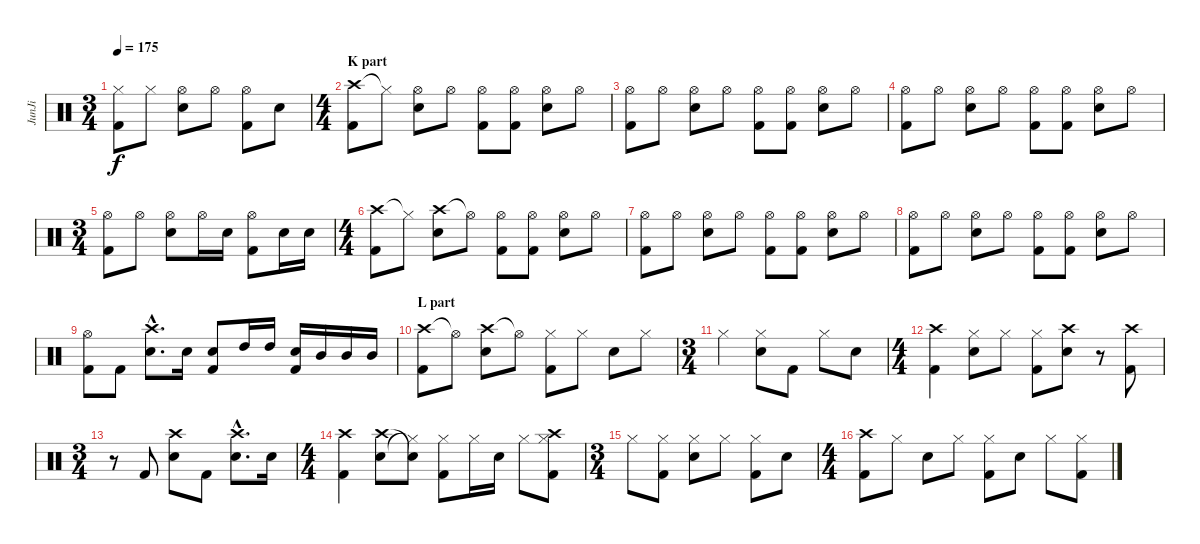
\track ("JunJi" "JunJi") {instrument percussion}
\staff {score}
\articulation defaults
\ts (3 4)
\tempo 175
\clef neutral
\ks c
("Hi-Hat (closed)" "Kick (hit) 2").8{dy f} "Hi-Hat (closed)".8 ("Hi-Hat (open)" "Snare (hit) 2").8 "Hi-Hat (open)".8 ("Hi-Hat (open)" "Kick (hit) 2").8 "Snare (hit) 2".8 |
\ts (4 4)
\section ("" "K part")
("Crash high (hit)" "Kick (hit) 2").8 "Hi-Hat (closed)"{t}.8 ("Hi-Hat (open)" "Snare (hit) 2").8 "Hi-Hat (open)".8 ("Hi-Hat (open)" "Kick (hit) 2").8 ("Hi-Hat (open)" "Kick (hit) 2").8 ("Hi-Hat (open)" "Snare (hit) 2").8 "Hi-Hat (open)".8 |
("Hi-Hat (open)" "Kick (hit) 2").8 "Hi-Hat (open)".8 ("Hi-Hat (open)" "Snare (hit) 2").8 "Hi-Hat (open)".8 ("Hi-Hat (open)" "Kick (hit) 2").8 ("Hi-Hat (open)" "Kick (hit) 2").8 ("Hi-Hat (open)" "Snare (hit) 2").8 "Hi-Hat (open)".8 |
("Hi-Hat (open)" "Kick (hit) 2").8 "Hi-Hat (open)".8 ("Hi-Hat (open)" "Snare (hit) 2").8 "Hi-Hat (open)".8 ("Hi-Hat (open)" "Kick (hit) 2").8 ("Hi-Hat (open)" "Kick (hit) 2").8 ("Hi-Hat (open)" "Snare (hit) 2").8 "Hi-Hat (open)".8 |
\ts (3 4)
("Hi-Hat (open)" "Kick (hit) 2").8 "Hi-Hat (open)".8 ("Hi-Hat (open)" "Snare (hit) 2").8 "Hi-Hat (open)".16 "Snare (hit) 2".16 ("Hi-Hat (open)" "Kick (hit) 2").8 "Snare (hit) 2".16 "Snare (hit) 2".16 |
\ts (4 4)
("Crash high (hit)" "Kick (hit) 2").8 "Hi-Hat (closed)"{t}.8 ("Crash high (hit)" "Snare (hit) 2").8 "Hi-Hat (open)"{t}.8 ("Hi-Hat (open)" "Kick (hit) 2").8 ("Hi-Hat (open)" "Kick (hit) 2").8 ("Hi-Hat (open)" "Snare (hit) 2").8 "Hi-Hat (open)".8 |
("Hi-Hat (open)" "Kick (hit) 2").8 "Hi-Hat (open)".8 ("Hi-Hat (open)" "Snare (hit) 2").8 "Hi-Hat (open)".8 ("Hi-Hat (open)" "Kick (hit) 2").8 ("Hi-Hat (open)" "Kick (hit) 2").8 ("Hi-Hat (open)" "Snare (hit) 2").8 "Hi-Hat (open)".8 |
("Hi-Hat (open)" "Kick (hit) 2").8 "Hi-Hat (open)".8 ("Hi-Hat (open)" "Snare (hit) 2").8 "Hi-Hat (open)".8 ("Hi-Hat (open)" "Kick (hit) 2").8 ("Hi-Hat (open)" "Kick (hit) 2").8 ("Hi-Hat (open)" "Snare (hit) 2").8 "Hi-Hat (open)".8 |
("Hi-Hat (open)" "Kick (hit) 2").8 "Kick (hit) 2".8 ("Crash high (hit)"{hac} "Snare (hit) 2"{hac}).8{d} "Snare (hit) 2".16 ("Snare (hit) 2" "Kick (hit) 2").8 "High Tom (hit)".16 "High Tom (hit)".16 ("Snare (hit) 2" "Kick (hit) 2").16 "Mid Tom (hit)".16 "Mid Tom (hit)".16 "Mid Tom (hit)".16 |
\section ("" "L part")
("Crash high (hit)" "Kick (hit) 2").8 "Hi-Hat (open)"{t}.8 ("Crash high (hit)" "Snare (hit) 2").8 "Hi-Hat (open)"{t}.8 ("Hi-Hat (closed)" "Kick (hit) 2").8 "Hi-Hat (closed)".8 "Snare (hit) 2".8 "Hi-Hat (closed)".8 |
\ts (3 4)
"Hi-Hat (closed)".4 ("Hi-Hat (closed)" "Snare (hit) 2").8 "Kick (hit) 2".8 "Hi-Hat (closed)".8 "Snare (hit) 2".8 |
\ts (4 4)
("Crash high (hit)" "Kick (hit) 2").4 ("Snare (hit) 2" "Hi-Hat (closed)").8 "Hi-Hat (closed)".8 ("Kick (hit) 2" "Hi-Hat (closed)").8 ("Snare (hit) 2" "Crash high (hit)").8 r.8 ("Kick (hit) 2" "Crash high (hit)").8 |
\ts (3 4)
r.8 "Kick (hit) 2".8 ("Crash high (hit)" "Snare (hit) 2").8 "Kick (hit) 2".8 ("Crash high (hit)"{hac} "Snare (hit) 2"{hac}).8{d} "Snare (hit) 2".16 |
\ts (4 4)
("Crash high (hit)" "Kick (hit) 2").4 ("Crash high (hit)" "Snare (hit) 2").8 ("Snare (hit)"{t} "Hi-Hat (closed)"{t}).8 ("Kick (hit) 2" "Hi-Hat (closed)").8 "Hi-Hat (closed)".16 "Snare (hit) 2".16 "Hi-Hat (closed)".8 ("Hi-Hat (closed)" "Kick (hit) 2" "Crash high (hit)").8 |
\ts (3 4)
"Hi-Hat (closed)".8 ("Hi-Hat (closed)" "Kick (hit) 2").8 ("Hi-Hat (closed)" "Snare (hit) 2").8 "Hi-Hat (closed)".8 ("Hi-Hat (closed)" "Kick (hit) 2").8 "Snare (hit) 2".8 |
\ts (4 4)
("Crash high (hit)" "Kick (hit) 2").8 "Hi-Hat (closed)".8 "Snare (hit) 2".8 "Hi-Hat (closed)".8 ("Kick (hit) 2" "Hi-Hat (closed)").8 "Snare (hit) 2".8 "Hi-Hat (closed)".8 ("Kick (hit) 2" "Hi-Hat (closed)").8
